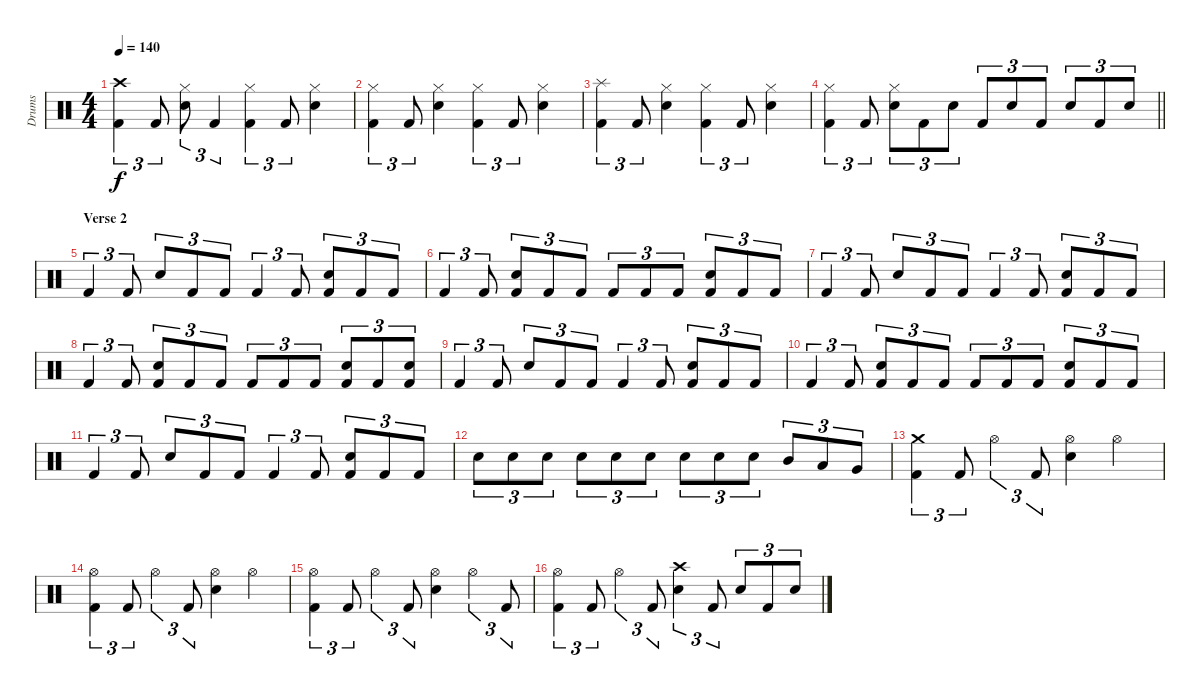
\track ("Drums" "Drums") {instrument percussion}
\staff {score}
\articulation defaults
\ts (4 4)
\tempo 140
\clef neutral
\ks c
("Crash high (hit)" "Kick (hit) 2").4{tu (3 2) dy f} "Kick (hit) 2".8{tu (3 2)} ("Hi-Hat (closed)" "Electric Snare (hit)").8{tu (3 2)} "Kick (hit) 2".4{tu (3 2)} ("Hi-Hat (closed)" "Kick (hit) 2").4{tu (3 2)} "Kick (hit) 2".8{tu (3 2)} ("Hi-Hat (closed)" "Electric Snare (hit)").4 |
("Hi-Hat (closed)" "Kick (hit) 2").4{tu (3 2)} "Kick (hit) 2".8{tu (3 2)} ("Hi-Hat (closed)" "Electric Snare (hit)").4 ("Hi-Hat (closed)" "Kick (hit) 2").4{tu (3 2)} "Kick (hit) 2".8{tu (3 2)} ("Hi-Hat (closed)" "Electric Snare (hit)").4 |
("Splash (hit)" "Kick (hit) 2").4{tu (3 2)} "Kick (hit) 2".8{tu (3 2)} ("Hi-Hat (closed)" "Electric Snare (hit)").4 ("Hi-Hat (closed)" "Kick (hit) 2").4{tu (3 2)} "Kick (hit) 2".8{tu (3 2)} ("Hi-Hat (closed)" "Electric Snare (hit)").4 |
\barLineRight lightlight
("Hi-Hat (closed)" "Kick (hit) 2").4{tu (3 2)} "Kick (hit) 2".8{tu (3 2)} ("Hi-Hat (closed)" "Electric Snare (hit)").8{tu (3 2)} "Kick (hit) 2".8{tu (3 2)} "Electric Snare (hit)".8{tu (3 2)} "Kick (hit) 2".8{tu (3 2)} "Electric Snare (hit)".8{tu (3 2)} "Kick (hit) 2".8{tu (3 2)} "Electric Snare (hit)".8{tu (3 2)} "Kick (hit) 2".8{tu (3 2)} "Electric Snare (hit)".8{tu (3 2)} |
\section ("" "Verse 2")
"Kick (hit) 2".4{tu (3 2)} "Kick (hit) 2".8{tu (3 2)} "Electric Snare (hit)".8{tu (3 2)} "Kick (hit) 2".8{tu (3 2)} "Kick (hit) 2".8{tu (3 2)} "Kick (hit) 2".4{tu (3 2)} "Kick (hit) 2".8{tu (3 2)} ("Electric Snare (hit)" "Kick (hit) 2").8{tu (3 2)} "Kick (hit) 2".8{tu (3 2)} "Kick (hit) 2".8{tu (3 2)} |
"Kick (hit) 2".4{tu (3 2)} "Kick (hit) 2".8{tu (3 2)} ("Electric Snare (hit)" "Kick (hit) 2").8{tu (3 2)} "Kick (hit) 2".8{tu (3 2)} "Kick (hit) 2".8{tu (3 2)} "Kick (hit) 2".8{tu (3 2)} "Kick (hit) 2".8{tu (3 2)} "Kick (hit) 2".8{tu (3 2)} ("Electric Snare (hit)" "Kick (hit) 2").8{tu (3 2)} "Kick (hit) 2".8{tu (3 2)} "Kick (hit) 2".8{tu (3 2)} |
"Kick (hit) 2".4{tu (3 2)} "Kick (hit) 2".8{tu (3 2)} "Electric Snare (hit)".8{tu (3 2)} "Kick (hit) 2".8{tu (3 2)} "Kick (hit) 2".8{tu (3 2)} "Kick (hit) 2".4{tu (3 2)} "Kick (hit) 2".8{tu (3 2)} ("Electric Snare (hit)" "Kick (hit) 2").8{tu (3 2)} "Kick (hit) 2".8{tu (3 2)} "Kick (hit) 2".8{tu (3 2)} |
"Kick (hit) 2".4{tu (3 2)} "Kick (hit) 2".8{tu (3 2)} ("Electric Snare (hit)" "Kick (hit) 2").8{tu (3 2)} "Kick (hit) 2".8{tu (3 2)} "Kick (hit) 2".8{tu (3 2)} "Kick (hit) 2".8{tu (3 2)} "Kick (hit) 2".8{tu (3 2)} "Kick (hit) 2".8{tu (3 2)} ("Electric Snare (hit)" "Kick (hit) 2").8{tu (3 2)} "Kick (hit) 2".8{tu (3 2)} ("Electric Snare (hit)" "Kick (hit) 2").8{tu (3 2)} |
"Kick (hit) 2".4{tu (3 2)} "Kick (hit) 2".8{tu (3 2)} "Electric Snare (hit)".8{tu (3 2)} "Kick (hit) 2".8{tu (3 2)} "Kick (hit) 2".8{tu (3 2)} "Kick (hit) 2".4{tu (3 2)} "Kick (hit) 2".8{tu (3 2)} ("Electric Snare (hit)" "Kick (hit) 2").8{tu (3 2)} "Kick (hit) 2".8{tu (3 2)} "Kick (hit) 2".8{tu (3 2)} |
"Kick (hit) 2".4{tu (3 2)} "Kick (hit) 2".8{tu (3 2)} ("Electric Snare (hit)" "Kick (hit) 2").8{tu (3 2)} "Kick (hit) 2".8{tu (3 2)} "Kick (hit) 2".8{tu (3 2)} "Kick (hit) 2".8{tu (3 2)} "Kick (hit) 2".8{tu (3 2)} "Kick (hit) 2".8{tu (3 2)} ("Electric Snare (hit)" "Kick (hit) 2").8{tu (3 2)} "Kick (hit) 2".8{tu (3 2)} "Kick (hit) 2".8{tu (3 2)} |
"Kick (hit) 2".4{tu (3 2)} "Kick (hit) 2".8{tu (3 2)} "Electric Snare (hit)".8{tu (3 2)} "Kick (hit) 2".8{tu (3 2)} "Kick (hit) 2".8{tu (3 2)} "Kick (hit) 2".4{tu (3 2)} "Kick (hit) 2".8{tu (3 2)} ("Electric Snare (hit)" "Kick (hit) 2").8{tu (3 2)} "Kick (hit) 2".8{tu (3 2)} "Kick (hit) 2".8{tu (3 2)} |
"Electric Snare (hit)".8{tu (3 2)} "Electric Snare (hit)".8{tu (3 2)} "Electric Snare (hit)".8{tu (3 2)} "Electric Snare (hit)".8{tu (3 2)} "Electric Snare (hit)".8{tu (3 2)} "Electric Snare (hit)".8{tu (3 2)} "Electric Snare (hit)".8{tu (3 2)} "Electric Snare (hit)".8{tu (3 2)} "Electric Snare (hit)".8{tu (3 2)} "Mid Tom (hit)".8{tu (3 2)} "Low Tom (hit)".8{tu (3 2)} "Very Low Tom (hit)".8{tu (3 2)} |
("Crash medium (hit)" "Kick (hit) 2").4{tu (3 2)} "Kick (hit) 2".8{tu (3 2)} "Hi-Hat (open)".4{tu (3 2)} "Kick (hit) 2".8{tu (3 2)} ("Hi-Hat (open)" "Electric Snare (hit)").4 "Hi-Hat (open)".4 |
("Hi-Hat (open)" "Kick (hit) 2").4{tu (3 2)} "Kick (hit) 2".8{tu (3 2)} "Hi-Hat (open)".4{tu (3 2)} "Kick (hit) 2".8{tu (3 2)} ("Hi-Hat (open)" "Electric Snare (hit)").4 "Hi-Hat (open)".4 |
("Hi-Hat (open)" "Kick (hit) 2").4{tu (3 2)} "Kick (hit) 2".8{tu (3 2)} "Hi-Hat (open)".4{tu (3 2)} "Kick (hit) 2".8{tu (3 2)} ("Hi-Hat (open)" "Electric Snare (hit)").4 "Hi-Hat (open)".4{tu (3 2)} "Kick (hit) 2".8{tu (3 2)} |
("Hi-Hat (open)" "Kick (hit) 2").4{tu (3 2)} "Kick (hit) 2".8{tu (3 2)} "Hi-Hat (open)".4{tu (3 2)} "Kick (hit) 2".8{tu (3 2)} ("Crash high (hit)" "Electric Snare (hit)").4{tu (3 2)} "Kick (hit) 2".8{tu (3 2)} "Electric Snare (hit)".8{tu (3 2)} "Kick (hit) 2".8{tu (3 2)} "Electric Snare (hit)".8{tu (3 2)}
